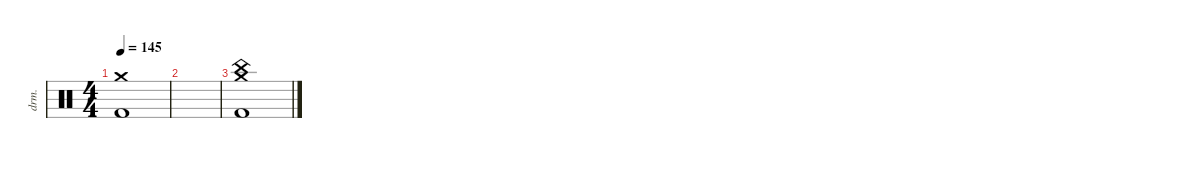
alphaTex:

\defaultSystemsLayout 4
\hideDynamics
\bracketExtendMode nobrackets
\track ("Drums - Mario" "drm.") {instrument percussion}
\staff {score}
\articulation defaults
\ts (4 4)
\tempo 145
\clef neutral
\ks c
("Kick (hit) 2" "Crash medium (hit)").1{dy ff beam Down} |
|
("China (hit)" "Crash medium (hit)" "Kick (hit) 2").1{beam Down}
